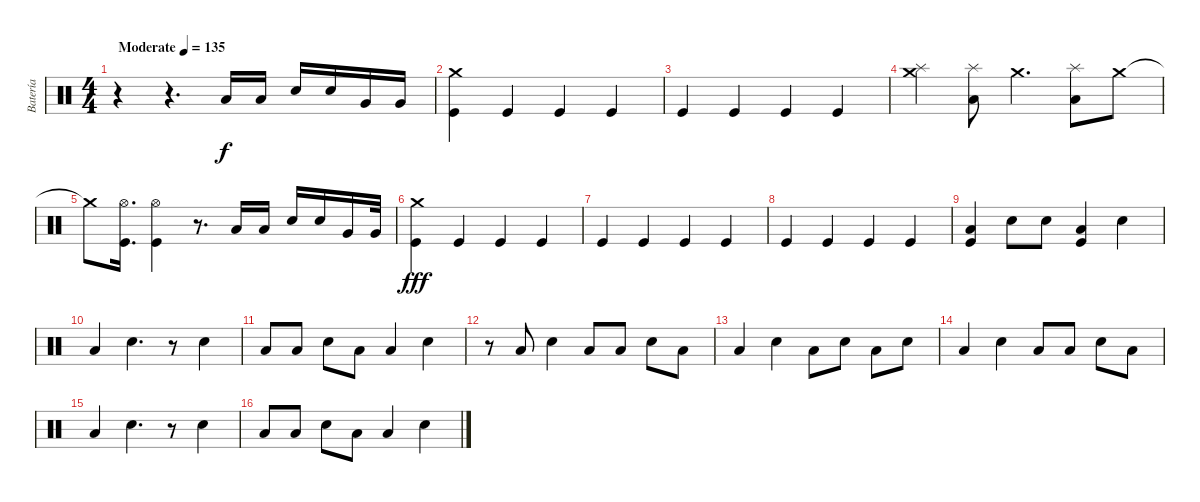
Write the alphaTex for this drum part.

\track ("Batería" "Batería") {instrument percussion}
\staff {score}
\articulation defaults
\ts (4 4)
\tempo (135 "Moderate")
\clef neutral
\ks c
r.4{dy f balance 0} r.4{d} "Low Floor Tom (hit)".16 "Low Floor Tom (hit)".16 "Electric Snare (hit)".16 "Electric Snare (hit)".16 "Very Low Tom (hit)".16 "Very Low Tom (hit)".16 |
("Crash medium (hit)" "Kick (hit)").4 "Kick (hit)".4 "Kick (hit)".4 "Kick (hit)".4 |
"Kick (hit)".4 "Kick (hit)".4 "Kick (hit)".4 "Kick (hit)".4 |
("Crash medium (hit)" "Splash (hit)").4 ("Splash (hit)" "Low Floor Tom (hit)").8 "Crash medium (hit)".4{d} ("Splash (hit)" "Low Floor Tom (hit)").8 "Crash medium (hit)".8 |
"Crash medium (hit)"{t}.8 ("Hi-Hat (open)" "Kick (hit)").16{d} ("Hi-Hat (open)" "Kick (hit)").4 r.8{d} "Low Floor Tom (hit)".16 "Low Floor Tom (hit)".16 "Electric Snare (hit)".16 "Electric Snare (hit)".16 "Very Low Tom (hit)".16 "Very Low Tom (hit)".32 |
("Crash medium (hit)" "Kick (hit)").4{dy fff balance 8} "Kick (hit)".4 "Kick (hit)".4 "Kick (hit)".4 |
"Kick (hit)".4 "Kick (hit)".4 "Kick (hit)".4 "Kick (hit)".4 |
"Kick (hit)".4 "Kick (hit)".4 "Kick (hit)".4 "Kick (hit)".4 |
("Low Floor Tom (hit)" "Kick (hit)").4 "Electric Snare (hit)".8 "Electric Snare (hit)".8 ("Low Floor Tom (hit)" "Kick (hit)").4 "Electric Snare (hit)".4 |
"Low Floor Tom (hit)".4 "Electric Snare (hit)".4{d} r.8 "Electric Snare (hit)".4 |
"Low Floor Tom (hit)".8 "Low Floor Tom (hit)".8 "Electric Snare (hit)".8 "Low Floor Tom (hit)".8 "Low Floor Tom (hit)".4 "Electric Snare (hit)".4 |
r.8 "Low Floor Tom (hit)".8 "Electric Snare (hit)".4 "Low Floor Tom (hit)".8 "Low Floor Tom (hit)".8 "Electric Snare (hit)".8 "Low Floor Tom (hit)".8 |
"Low Floor Tom (hit)".4 "Electric Snare (hit)".4 "Low Floor Tom (hit)".8 "Electric Snare (hit)".8 "Low Floor Tom (hit)".8 "Electric Snare (hit)".8 |
"Low Floor Tom (hit)".4 "Electric Snare (hit)".4 "Low Floor Tom (hit)".8 "Low Floor Tom (hit)".8 "Electric Snare (hit)".8 "Low Floor Tom (hit)".8 |
"Low Floor Tom (hit)".4 "Electric Snare (hit)".4{d} r.8 "Electric Snare (hit)".4 |
"Low Floor Tom (hit)".8 "Low Floor Tom (hit)".8 "Electric Snare (hit)".8 "Low Floor Tom (hit)".8 "Low Floor Tom (hit)".4 "Electric Snare (hit)".4
